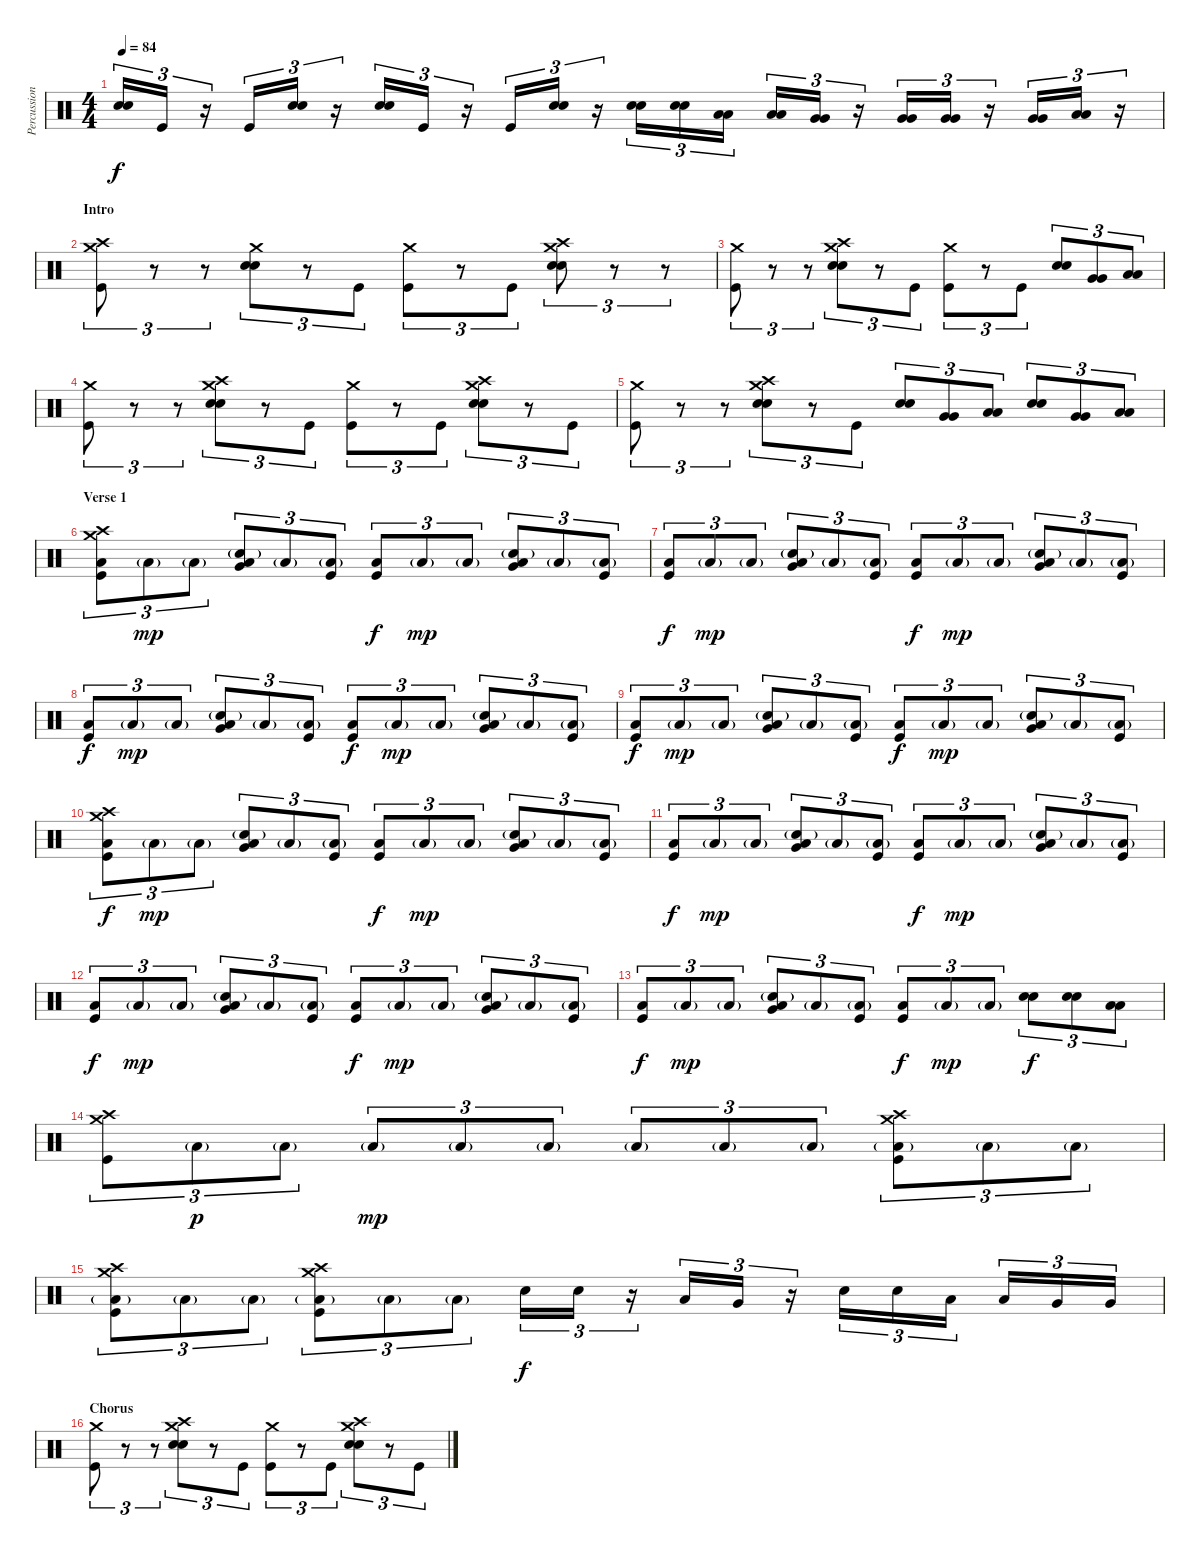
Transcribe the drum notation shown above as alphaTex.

\track ("Percussion" "Percussion") {instrument percussion}
\staff {score}
\articulation defaults
\ts (4 4)
\tempo 84
\clef neutral
\ks c
("Snare (hit) 2" "Snare (hit) 2").16{tu (3 2) dy f} "Kick (hit)".16{tu (3 2)} r.16{tu (3 2)} "Kick (hit)".16{tu (3 2)} ("Snare (hit) 2" "Snare (hit) 2").16{tu (3 2)} r.16{tu (3 2)} ("Snare (hit) 2" "Snare (hit) 2").16{tu (3 2)} "Kick (hit)".16{tu (3 2)} r.16{tu (3 2)} "Kick (hit)".16{tu (3 2)} ("Snare (hit) 2" "Snare (hit) 2").16{tu (3 2)} r.16{tu (3 2)} ("Snare (hit) 2" "Snare (hit) 2").16{tu (3 2)} ("Snare (hit) 2" "Snare (hit) 2").16{tu (3 2)} ("Low Tom (hit)" "Low Tom (hit)").16{tu (3 2)} ("Low Tom (hit)" "Low Tom (hit)").16{tu (3 2)} ("Very Low Tom (hit)" "Very Low Tom (hit)").16{tu (3 2)} r.16{tu (3 2)} ("Very Low Tom (hit)" "Very Low Tom (hit)").16{tu (3 2)} ("Very Low Tom (hit)" "Very Low Tom (hit)").16{tu (3 2)} r.16{tu (3 2)} ("Very Low Tom (hit)" "Very Low Tom (hit)").16{tu (3 2)} ("Low Floor Tom (hit)" "Low Floor Tom (hit)").16{tu (3 2)} r.16{tu (3 2)} |
\section ("" "Intro")
("Crash high (hit)" "Crash medium (hit)" "Kick (hit)").8{tu (3 2)} r.8{tu (3 2)} r.8{tu (3 2)} ("Crash medium (hit)" "Snare (hit) 2" "Snare (hit) 2").8{tu (3 2)} r.8{tu (3 2)} "Kick (hit)".8{tu (3 2)} ("Crash medium (hit)" "Kick (hit)").8{tu (3 2)} r.8{tu (3 2)} "Kick (hit)".8{tu (3 2)} ("Crash high (hit)" "Crash medium (hit)" "Snare (hit) 2" "Snare (hit) 2").8{tu (3 2)} r.8{tu (3 2)} r.8{tu (3 2)} |
("Crash medium (hit)" "Kick (hit)").8{tu (3 2)} r.8{tu (3 2)} r.8{tu (3 2)} ("Crash high (hit)" "Crash medium (hit)" "Snare (hit) 2" "Snare (hit) 2").8{tu (3 2)} r.8{tu (3 2)} "Kick (hit)".8{tu (3 2)} ("Crash medium (hit)" "Kick (hit)").8{tu (3 2)} r.8{tu (3 2)} "Kick (hit)".8{tu (3 2)} ("Snare (hit) 2" "Snare (hit) 2").8{tu (3 2)} ("Very Low Tom (hit)" "Very Low Tom (hit)").8{tu (3 2)} ("Low Floor Tom (hit)" "Low Floor Tom (hit)").8{tu (3 2)} |
("Crash medium (hit)" "Kick (hit)").8{tu (3 2)} r.8{tu (3 2)} r.8{tu (3 2)} ("Crash high (hit)" "Crash medium (hit)" "Snare (hit) 2" "Snare (hit) 2").8{tu (3 2)} r.8{tu (3 2)} "Kick (hit)".8{tu (3 2)} ("Crash medium (hit)" "Kick (hit)").8{tu (3 2)} r.8{tu (3 2)} "Kick (hit)".8{tu (3 2)} ("Crash high (hit)" "Crash medium (hit)" "Snare (hit) 2" "Snare (hit) 2").8{tu (3 2)} r.8{tu (3 2)} "Kick (hit)".8{tu (3 2)} |
("Crash medium (hit)" "Kick (hit)").8{tu (3 2)} r.8{tu (3 2)} r.8{tu (3 2)} ("Crash high (hit)" "Crash medium (hit)" "Snare (hit) 2" "Snare (hit) 2").8{tu (3 2)} r.8{tu (3 2)} "Kick (hit)".8{tu (3 2)} ("Snare (hit) 2" "Snare (hit) 2").8{tu (3 2)} ("Very Low Tom (hit)" "Very Low Tom (hit)").8{tu (3 2)} ("Low Floor Tom (hit)" "Low Floor Tom (hit)").8{tu (3 2)} ("Snare (hit) 2" "Snare (hit) 2").8{tu (3 2)} ("Very Low Tom (hit)" "Very Low Tom (hit)").8{tu (3 2)} ("Low Floor Tom (hit)" "Low Floor Tom (hit)").8{tu (3 2)} |
\section ("" "Verse 1")
("Crash medium (hit)" "Crash high (hit)" "Kick (hit)" "Low Floor Tom (hit)").8{tu (3 2)} "Low Floor Tom (hit)"{g}.8{tu (3 2) dy mp} "Low Floor Tom (hit)"{g}.8{tu (3 2)} ("Very Low Tom (hit)" "Snare (hit) 2"{g} "Low Floor Tom (hit)").8{tu (3 2)} "Low Floor Tom (hit)"{g}.8{tu (3 2)} ("Kick (hit)" "Low Floor Tom (hit)"{g}).8{tu (3 2)} ("Kick (hit)" "Low Floor Tom (hit)").8{tu (3 2) dy f} "Low Floor Tom (hit)"{g}.8{tu (3 2) dy mp} "Low Floor Tom (hit)"{g}.8{tu (3 2)} ("Very Low Tom (hit)" "Snare (hit) 2"{g} "Low Floor Tom (hit)").8{tu (3 2)} "Low Floor Tom (hit)"{g}.8{tu (3 2)} ("Kick (hit)" "Low Floor Tom (hit)"{g}).8{tu (3 2)} |
("Kick (hit)" "Low Floor Tom (hit)").8{tu (3 2) dy f} "Low Floor Tom (hit)"{g}.8{tu (3 2) dy mp} "Low Floor Tom (hit)"{g}.8{tu (3 2)} ("Very Low Tom (hit)" "Snare (hit) 2"{g} "Low Floor Tom (hit)").8{tu (3 2)} "Low Floor Tom (hit)"{g}.8{tu (3 2)} ("Kick (hit)" "Low Floor Tom (hit)"{g}).8{tu (3 2)} ("Kick (hit)" "Low Floor Tom (hit)").8{tu (3 2) dy f} "Low Floor Tom (hit)"{g}.8{tu (3 2) dy mp} "Low Floor Tom (hit)"{g}.8{tu (3 2)} ("Very Low Tom (hit)" "Snare (hit) 2"{g} "Low Floor Tom (hit)").8{tu (3 2)} "Low Floor Tom (hit)"{g}.8{tu (3 2)} ("Kick (hit)" "Low Floor Tom (hit)"{g}).8{tu (3 2)} |
("Kick (hit)" "Low Floor Tom (hit)").8{tu (3 2) dy f} "Low Floor Tom (hit)"{g}.8{tu (3 2) dy mp} "Low Floor Tom (hit)"{g}.8{tu (3 2)} ("Very Low Tom (hit)" "Snare (hit) 2"{g} "Low Floor Tom (hit)").8{tu (3 2)} "Low Floor Tom (hit)"{g}.8{tu (3 2)} ("Kick (hit)" "Low Floor Tom (hit)"{g}).8{tu (3 2)} ("Kick (hit)" "Low Floor Tom (hit)").8{tu (3 2) dy f} "Low Floor Tom (hit)"{g}.8{tu (3 2) dy mp} "Low Floor Tom (hit)"{g}.8{tu (3 2)} ("Very Low Tom (hit)" "Snare (hit) 2"{g} "Low Floor Tom (hit)").8{tu (3 2)} "Low Floor Tom (hit)"{g}.8{tu (3 2)} ("Kick (hit)" "Low Floor Tom (hit)"{g}).8{tu (3 2)} |
("Kick (hit)" "Low Floor Tom (hit)").8{tu (3 2) dy f} "Low Floor Tom (hit)"{g}.8{tu (3 2) dy mp} "Low Floor Tom (hit)"{g}.8{tu (3 2)} ("Very Low Tom (hit)" "Snare (hit) 2"{g} "Low Floor Tom (hit)").8{tu (3 2)} "Low Floor Tom (hit)"{g}.8{tu (3 2)} ("Kick (hit)" "Low Floor Tom (hit)"{g}).8{tu (3 2)} ("Kick (hit)" "Low Floor Tom (hit)").8{tu (3 2) dy f} "Low Floor Tom (hit)"{g}.8{tu (3 2) dy mp} "Low Floor Tom (hit)"{g}.8{tu (3 2)} ("Very Low Tom (hit)" "Snare (hit) 2"{g} "Low Floor Tom (hit)").8{tu (3 2)} "Low Floor Tom (hit)"{g}.8{tu (3 2)} ("Kick (hit)" "Low Floor Tom (hit)"{g}).8{tu (3 2)} |
("Crash medium (hit)" "Crash high (hit)" "Kick (hit)" "Low Floor Tom (hit)").8{tu (3 2) dy f} "Low Floor Tom (hit)"{g}.8{tu (3 2) dy mp} "Low Floor Tom (hit)"{g}.8{tu (3 2)} ("Very Low Tom (hit)" "Snare (hit) 2"{g} "Low Floor Tom (hit)").8{tu (3 2)} "Low Floor Tom (hit)"{g}.8{tu (3 2)} ("Kick (hit)" "Low Floor Tom (hit)"{g}).8{tu (3 2)} ("Kick (hit)" "Low Floor Tom (hit)").8{tu (3 2) dy f} "Low Floor Tom (hit)"{g}.8{tu (3 2) dy mp} "Low Floor Tom (hit)"{g}.8{tu (3 2)} ("Very Low Tom (hit)" "Snare (hit) 2"{g} "Low Floor Tom (hit)").8{tu (3 2)} "Low Floor Tom (hit)"{g}.8{tu (3 2)} ("Kick (hit)" "Low Floor Tom (hit)"{g}).8{tu (3 2)} |
("Kick (hit)" "Low Floor Tom (hit)").8{tu (3 2) dy f} "Low Floor Tom (hit)"{g}.8{tu (3 2) dy mp} "Low Floor Tom (hit)"{g}.8{tu (3 2)} ("Very Low Tom (hit)" "Snare (hit) 2"{g} "Low Floor Tom (hit)").8{tu (3 2)} "Low Floor Tom (hit)"{g}.8{tu (3 2)} ("Kick (hit)" "Low Floor Tom (hit)"{g}).8{tu (3 2)} ("Kick (hit)" "Low Floor Tom (hit)").8{tu (3 2) dy f} "Low Floor Tom (hit)"{g}.8{tu (3 2) dy mp} "Low Floor Tom (hit)"{g}.8{tu (3 2)} ("Very Low Tom (hit)" "Snare (hit) 2"{g} "Low Floor Tom (hit)").8{tu (3 2)} "Low Floor Tom (hit)"{g}.8{tu (3 2)} ("Kick (hit)" "Low Floor Tom (hit)"{g}).8{tu (3 2)} |
("Kick (hit)" "Low Floor Tom (hit)").8{tu (3 2) dy f} "Low Floor Tom (hit)"{g}.8{tu (3 2) dy mp} "Low Floor Tom (hit)"{g}.8{tu (3 2)} ("Very Low Tom (hit)" "Snare (hit) 2"{g} "Low Floor Tom (hit)").8{tu (3 2)} "Low Floor Tom (hit)"{g}.8{tu (3 2)} ("Kick (hit)" "Low Floor Tom (hit)"{g}).8{tu (3 2)} ("Kick (hit)" "Low Floor Tom (hit)").8{tu (3 2) dy f} "Low Floor Tom (hit)"{g}.8{tu (3 2) dy mp} "Low Floor Tom (hit)"{g}.8{tu (3 2)} ("Very Low Tom (hit)" "Snare (hit) 2"{g} "Low Floor Tom (hit)").8{tu (3 2)} "Low Floor Tom (hit)"{g}.8{tu (3 2)} ("Kick (hit)" "Low Floor Tom (hit)"{g}).8{tu (3 2)} |
("Kick (hit)" "Low Floor Tom (hit)").8{tu (3 2) dy f} "Low Floor Tom (hit)"{g}.8{tu (3 2) dy mp} "Low Floor Tom (hit)"{g}.8{tu (3 2)} ("Very Low Tom (hit)" "Snare (hit) 2"{g} "Low Floor Tom (hit)").8{tu (3 2)} "Low Floor Tom (hit)"{g}.8{tu (3 2)} ("Kick (hit)" "Low Floor Tom (hit)"{g}).8{tu (3 2)} ("Kick (hit)" "Low Floor Tom (hit)").8{tu (3 2) dy f} "Low Floor Tom (hit)"{g}.8{tu (3 2) dy mp} "Low Floor Tom (hit)"{g}.8{tu (3 2)} ("Snare (hit) 2" "Snare (hit) 2").8{tu (3 2) dy f} ("Snare (hit) 2" "Snare (hit) 2").8{tu (3 2)} ("Low Floor Tom (hit)" "Low Floor Tom (hit)").8{tu (3 2)} |
\section ("" "")
("Crash high (hit)" "Crash medium (hit)" "Kick (hit)").8{tu (3 2)} "Low Floor Tom (hit)"{g}.8{tu (3 2) dy p} "Low Floor Tom (hit)"{g}.8{tu (3 2)} "Low Floor Tom (hit)"{g}.8{tu (3 2) dy mp} "Low Floor Tom (hit)"{g}.8{tu (3 2)} "Low Floor Tom (hit)"{g}.8{tu (3 2)} "Low Floor Tom (hit)"{g}.8{tu (3 2)} "Low Floor Tom (hit)"{g}.8{tu (3 2)} "Low Floor Tom (hit)"{g}.8{tu (3 2)} ("Crash high (hit)" "Crash medium (hit)" "Kick (hit)" "Low Floor Tom (hit)"{g}).8{tu (3 2)} "Low Floor Tom (hit)"{g}.8{tu (3 2)} "Low Floor Tom (hit)"{g}.8{tu (3 2)} |
("Crash high (hit)" "Crash medium (hit)" "Kick (hit)" "Low Floor Tom (hit)"{g}).8{tu (3 2)} "Low Floor Tom (hit)"{g}.8{tu (3 2)} "Low Floor Tom (hit)"{g}.8{tu (3 2)} ("Crash high (hit)" "Crash medium (hit)" "Kick (hit)" "Low Floor Tom (hit)"{g}).8{tu (3 2)} "Low Floor Tom (hit)"{g}.8{tu (3 2)} "Low Floor Tom (hit)"{g}.8{tu (3 2)} "Snare (hit) 2".16{tu (3 2) dy f} "Snare (hit) 2".16{tu (3 2)} r.16{tu (3 2)} "Low Tom (hit)".16{tu (3 2)} "Very Low Tom (hit)".16{tu (3 2)} r.16{tu (3 2)} "Snare (hit) 2".16{tu (3 2)} "Snare (hit) 2".16{tu (3 2)} "Low Tom (hit)".16{tu (3 2)} "Low Tom (hit)".16{tu (3 2)} "Very Low Tom (hit)".16{tu (3 2)} "Very Low Tom (hit)".16{tu (3 2)} |
\section ("" "Chorus")
("Crash medium (hit)" "Kick (hit)").8{tu (3 2)} r.8{tu (3 2)} r.8{tu (3 2)} ("Crash high (hit)" "Crash medium (hit)" "Snare (hit) 2" "Snare (hit) 2").8{tu (3 2)} r.8{tu (3 2)} "Kick (hit)".8{tu (3 2)} ("Crash medium (hit)" "Kick (hit)").8{tu (3 2)} r.8{tu (3 2)} "Kick (hit)".8{tu (3 2)} ("Crash high (hit)" "Crash medium (hit)" "Snare (hit) 2" "Snare (hit) 2").8{tu (3 2)} r.8{tu (3 2)} "Kick (hit)".8{tu (3 2)}
